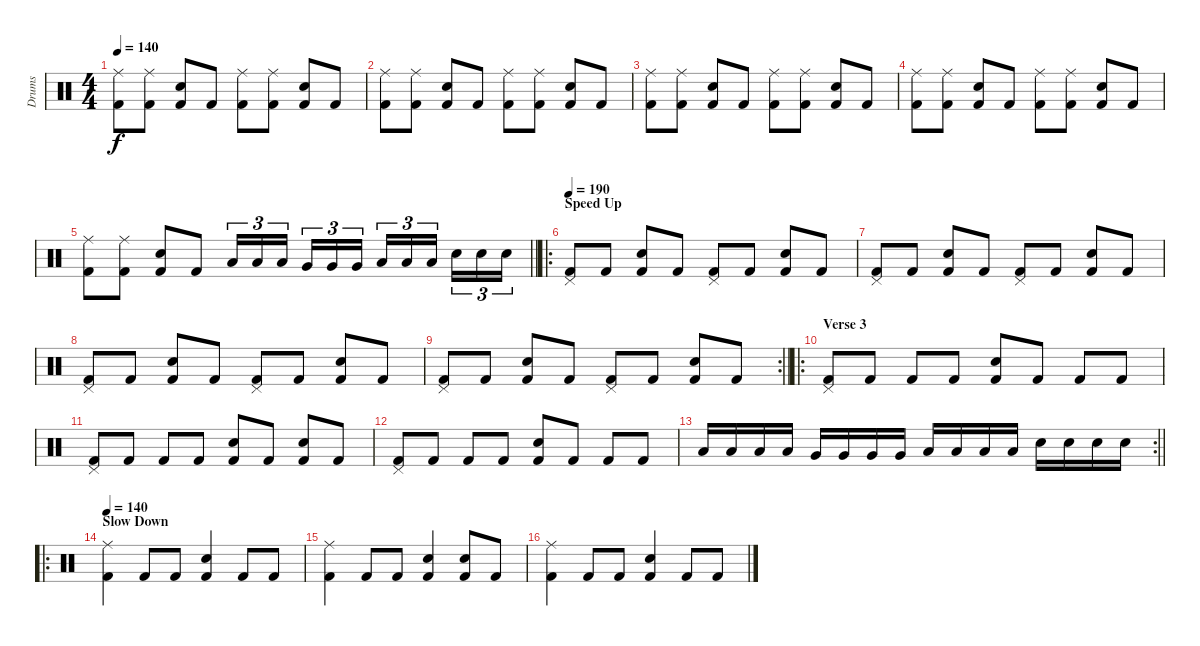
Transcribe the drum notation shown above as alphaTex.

\track ("Drums" "Drums") {instrument percussion}
\staff {score}
\articulation defaults
\ts (4 4)
\tempo 140
\clef neutral
\ks c
("Ride (middle)" "Kick (hit) 2").8{dy f} ("Ride (middle)" "Kick (hit) 2").8 ("Snare (hit) 2" "Kick (hit) 2").8 "Kick (hit) 2".8 ("Ride (middle)" "Kick (hit) 2").8 ("Ride (middle)" "Kick (hit) 2").8 ("Snare (hit) 2" "Kick (hit) 2").8 "Kick (hit) 2".8 |
("Ride (middle)" "Kick (hit) 2").8 ("Ride (middle)" "Kick (hit) 2").8 ("Snare (hit) 2" "Kick (hit) 2").8 "Kick (hit) 2".8 ("Ride (middle)" "Kick (hit) 2").8 ("Ride (middle)" "Kick (hit) 2").8 ("Snare (hit) 2" "Kick (hit) 2").8 "Kick (hit) 2".8 |
("Ride (middle)" "Kick (hit) 2").8 ("Ride (middle)" "Kick (hit) 2").8 ("Snare (hit) 2" "Kick (hit) 2").8 "Kick (hit) 2".8 ("Ride (middle)" "Kick (hit) 2").8 ("Ride (middle)" "Kick (hit) 2").8 ("Snare (hit) 2" "Kick (hit) 2").8 "Kick (hit) 2".8 |
("Ride (middle)" "Kick (hit) 2").8 ("Ride (middle)" "Kick (hit) 2").8 ("Snare (hit) 2" "Kick (hit) 2").8 "Kick (hit) 2".8 ("Ride (middle)" "Kick (hit) 2").8 ("Ride (middle)" "Kick (hit) 2").8 ("Snare (hit) 2" "Kick (hit) 2").8 "Kick (hit) 2".8 |
\barLineRight lightlight
("Ride (middle)" "Kick (hit) 2").8 ("Ride (middle)" "Kick (hit) 2").8 ("Snare (hit) 2" "Kick (hit) 2").8 "Kick (hit) 2".8 "Low Tom (hit)".16{tu (3 2)} "Low Tom (hit)".16{tu (3 2)} "Low Tom (hit)".16{tu (3 2) beam splitsecondary} "Very Low Tom (hit)".16{tu (3 2)} "Very Low Tom (hit)".16{tu (3 2)} "Very Low Tom (hit)".16{tu (3 2)} "Low Floor Tom (hit)".16{tu (3 2)} "Low Floor Tom (hit)".16{tu (3 2)} "Low Floor Tom (hit)".16{tu (3 2) beam splitsecondary} "Snare (hit) 2".16{tu (3 2)} "Snare (hit) 2".16{tu (3 2)} "Snare (hit) 2".16{tu (3 2)} |
\ro
\section ("" "Speed Up")
\tempo 190
("Pedal Hi-Hat (hit)" "Kick (hit) 2").8 "Kick (hit) 2".8 ("Snare (hit) 2" "Kick (hit) 2").8 "Kick (hit) 2".8 ("Pedal Hi-Hat (hit)" "Kick (hit) 2").8 "Kick (hit) 2".8 ("Snare (hit) 2" "Kick (hit) 2").8 "Kick (hit) 2".8 |
("Pedal Hi-Hat (hit)" "Kick (hit) 2").8 "Kick (hit) 2".8 ("Snare (hit) 2" "Kick (hit) 2").8 "Kick (hit) 2".8 ("Pedal Hi-Hat (hit)" "Kick (hit) 2").8 "Kick (hit) 2".8 ("Snare (hit) 2" "Kick (hit) 2").8 "Kick (hit) 2".8 |
("Pedal Hi-Hat (hit)" "Kick (hit) 2").8 "Kick (hit) 2".8 ("Snare (hit) 2" "Kick (hit) 2").8 "Kick (hit) 2".8 ("Pedal Hi-Hat (hit)" "Kick (hit) 2").8 "Kick (hit) 2".8 ("Snare (hit) 2" "Kick (hit) 2").8 "Kick (hit) 2".8 |
\rc 2
\barLineRight lightlight
("Pedal Hi-Hat (hit)" "Kick (hit) 2").8 "Kick (hit) 2".8 ("Snare (hit) 2" "Kick (hit) 2").8 "Kick (hit) 2".8 ("Pedal Hi-Hat (hit)" "Kick (hit) 2").8 "Kick (hit) 2".8 ("Snare (hit) 2" "Kick (hit) 2").8 "Kick (hit) 2".8 |
\ro
\section ("" "Verse 3")
("Pedal Hi-Hat (hit)" "Kick (hit) 2").8 "Kick (hit) 2".8 "Kick (hit) 2".8 "Kick (hit) 2".8 ("Snare (hit) 2" "Kick (hit) 2").8 "Kick (hit) 2".8 "Kick (hit) 2".8 "Kick (hit) 2".8 |
("Pedal Hi-Hat (hit)" "Kick (hit) 2").8 "Kick (hit) 2".8 "Kick (hit) 2".8 "Kick (hit) 2".8 ("Snare (hit) 2" "Kick (hit) 2").8 "Kick (hit) 2".8 ("Snare (hit) 2" "Kick (hit) 2").8 "Kick (hit) 2".8 |
("Pedal Hi-Hat (hit)" "Kick (hit) 2").8 "Kick (hit) 2".8 "Kick (hit) 2".8 "Kick (hit) 2".8 ("Snare (hit) 2" "Kick (hit) 2").8 "Kick (hit) 2".8 "Kick (hit) 2".8 "Kick (hit) 2".8 |
\rc 2
\barLineRight lightlight "Low Tom (hit)".16 "Low Tom (hit)".16 "Low Tom (hit)".16 "Low Tom (hit)".16 "Very Low Tom (hit)".16 "Very Low Tom (hit)".16 "Very Low Tom (hit)".16 "Very Low Tom (hit)".16 "Low Floor Tom (hit)".16 "Low Floor Tom (hit)".16 "Low Floor Tom (hit)".16 "Low Floor Tom (hit)".16 "Snare (hit) 2".16 "Snare (hit) 2".16 "Snare (hit) 2".16 "Snare (hit) 2".16
|
\ro
\section ("" "Slow Down")
\tempo 140
("Ride (middle)" "Kick (hit) 2").4 "Kick (hit) 2".8 "Kick (hit) 2".8 ("Snare (hit) 2" "Kick (hit) 2").4 "Kick (hit) 2".8 "Kick (hit) 2".8 |
("Ride (middle)" "Kick (hit) 2").4 "Kick (hit) 2".8 "Kick (hit) 2".8 ("Snare (hit) 2" "Kick (hit) 2").4 ("Snare (hit) 2" "Kick (hit) 2").8 "Kick (hit) 2".8 |
("Ride (middle)" "Kick (hit) 2").4 "Kick (hit) 2".8 "Kick (hit) 2".8 ("Snare (hit) 2" "Kick (hit) 2").4 "Kick (hit) 2".8 "Kick (hit) 2".8
